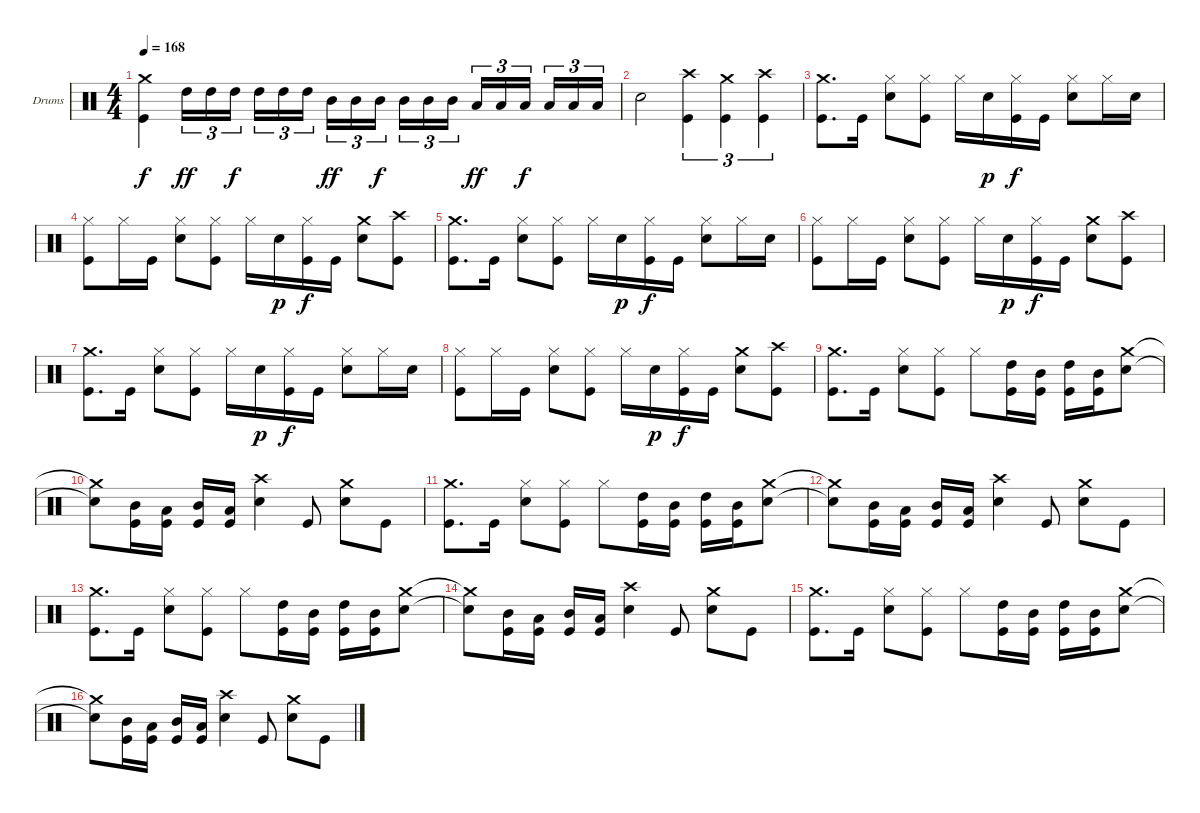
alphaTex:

\bracketExtendMode groupsimilarinstruments
\firstSystemTrackNameOrientation horizontal
\otherSystemsTrackNameOrientation horizontal
\track ("Drumkit" "Drums") {instrument percussion}
\staff {score}
\articulation defaults
\ts (4 4)
\tempo 168
\clef neutral
\ks c
("Crash medium (hit)" "Kick (hit)").4{dy f} "High Tom (hit)".16{tu (3 2) dy ff} "High Tom (hit)".16{tu (3 2)} "High Tom (hit)".16{tu (3 2) dy f} "High Tom (hit)".16{tu (3 2)} "High Tom (hit)".16{tu (3 2)} "High Tom (hit)".16{tu (3 2)} "Mid Tom (hit)".16{tu (3 2) dy ff} "Mid Tom (hit)".16{tu (3 2)} "Mid Tom (hit)".16{tu (3 2) dy f} "Mid Tom (hit)".16{tu (3 2)} "Mid Tom (hit)".16{tu (3 2)} "Mid Tom (hit)".16{tu (3 2)} "Low Tom (hit)".16{tu (3 2) dy ff} "Low Tom (hit)".16{tu (3 2)} "Low Tom (hit)".16{tu (3 2) dy f} "Low Tom (hit)".16{tu (3 2)} "Low Tom (hit)".16{tu (3 2)} "Low Tom (hit)".16{tu (3 2)} |
"Snare (hit) 2".2 ("Crash high (hit)" "Kick (hit)").4{tu (3 2)} ("Crash medium (hit)" "Kick (hit)").4{tu (3 2)} ("Crash high (hit)" "Kick (hit)").4{tu (3 2)} |
("Crash medium (hit)" "Kick (hit)").8{d} "Kick (hit)".16 ("Hi-Hat (closed)" "Snare (hit) 2").8 ("Hi-Hat (closed)" "Kick (hit)").8 "Hi-Hat (closed)".16 "Snare (hit) 2".16{dy p} ("Hi-Hat (closed)" "Kick (hit)").16{dy f} "Kick (hit)".16 ("Hi-Hat (closed)" "Snare (hit) 2").8 "Hi-Hat (closed)".16 "Snare (hit) 2".16 |
("Hi-Hat (closed)" "Kick (hit)").8 "Hi-Hat (closed)".16 "Kick (hit)".16 ("Hi-Hat (closed)" "Snare (hit) 2").8 ("Hi-Hat (closed)" "Kick (hit)").8 "Hi-Hat (closed)".16 "Snare (hit) 2".16{dy p} ("Hi-Hat (closed)" "Kick (hit)").16{dy f} "Kick (hit)".16 ("Crash medium (hit)" "Snare (hit) 2").8 ("Crash high (hit)" "Kick (hit)").8 |
("Crash medium (hit)" "Kick (hit)").8{d} "Kick (hit)".16 ("Hi-Hat (closed)" "Snare (hit) 2").8 ("Hi-Hat (closed)" "Kick (hit)").8 "Hi-Hat (closed)".16 "Snare (hit) 2".16{dy p} ("Hi-Hat (closed)" "Kick (hit)").16{dy f} "Kick (hit)".16 ("Hi-Hat (closed)" "Snare (hit) 2").8 "Hi-Hat (closed)".16 "Snare (hit) 2".16 |
("Hi-Hat (closed)" "Kick (hit)").8 "Hi-Hat (closed)".16 "Kick (hit)".16 ("Hi-Hat (closed)" "Snare (hit) 2").8 ("Hi-Hat (closed)" "Kick (hit)").8 "Hi-Hat (closed)".16 "Snare (hit) 2".16{dy p} ("Hi-Hat (closed)" "Kick (hit)").16{dy f} "Kick (hit)".16 ("Crash medium (hit)" "Snare (hit) 2").8 ("Crash high (hit)" "Kick (hit)").8 |
("Crash medium (hit)" "Kick (hit)").8{d} "Kick (hit)".16 ("Hi-Hat (closed)" "Snare (hit) 2").8 ("Hi-Hat (closed)" "Kick (hit)").8 "Hi-Hat (closed)".16 "Snare (hit) 2".16{dy p} ("Hi-Hat (closed)" "Kick (hit)").16{dy f} "Kick (hit)".16 ("Hi-Hat (closed)" "Snare (hit) 2").8 "Hi-Hat (closed)".16 "Snare (hit) 2".16 |
("Hi-Hat (closed)" "Kick (hit)").8 "Hi-Hat (closed)".16 "Kick (hit)".16 ("Hi-Hat (closed)" "Snare (hit) 2").8 ("Hi-Hat (closed)" "Kick (hit)").8 "Hi-Hat (closed)".16 "Snare (hit) 2".16{dy p} ("Hi-Hat (closed)" "Kick (hit)").16{dy f} "Kick (hit)".16 ("Crash medium (hit)" "Snare (hit) 2").8 ("Crash high (hit)" "Kick (hit)").8 |
("Crash medium (hit)" "Kick (hit)").8{d} "Kick (hit)".16 ("Hi-Hat (closed)" "Snare (hit) 2").8 ("Hi-Hat (closed)" "Kick (hit)").8 "Hi-Hat (closed)".8 ("High Tom (hit)" "Kick (hit)").16 ("Mid Tom (hit)" "Kick (hit)").16 ("High Tom (hit)" "Kick (hit)").16 ("Mid Tom (hit)" "Kick (hit)").16 ("Crash medium (hit)" "Snare (hit) 2").8 |
("Crash medium (hit)"{t} "Snare (hit) 2"{t}).8 ("Mid Tom (hit)" "Kick (hit)").16 ("Low Tom (hit)" "Kick (hit)").16 ("Mid Tom (hit)" "Kick (hit)").16 ("Low Tom (hit)" "Kick (hit)").16 ("Crash high (hit)" "Snare (hit) 2").4 "Kick (hit)".8 ("Crash medium (hit)" "Snare (hit) 2").8 "Kick (hit)".8 |
("Crash medium (hit)" "Kick (hit)").8{d} "Kick (hit)".16 ("Hi-Hat (closed)" "Snare (hit) 2").8 ("Hi-Hat (closed)" "Kick (hit)").8 "Hi-Hat (closed)".8 ("High Tom (hit)" "Kick (hit)").16 ("Mid Tom (hit)" "Kick (hit)").16 ("High Tom (hit)" "Kick (hit)").16 ("Mid Tom (hit)" "Kick (hit)").16 ("Crash medium (hit)" "Snare (hit) 2").8 |
("Crash medium (hit)"{t} "Snare (hit) 2"{t}).8 ("Mid Tom (hit)" "Kick (hit)").16 ("Low Tom (hit)" "Kick (hit)").16 ("Mid Tom (hit)" "Kick (hit)").16 ("Low Tom (hit)" "Kick (hit)").16 ("Crash high (hit)" "Snare (hit) 2").4 "Kick (hit)".8 ("Crash medium (hit)" "Snare (hit) 2").8 "Kick (hit)".8 |
("Crash medium (hit)" "Kick (hit)").8{d} "Kick (hit)".16 ("Hi-Hat (closed)" "Snare (hit) 2").8 ("Hi-Hat (closed)" "Kick (hit)").8 "Hi-Hat (closed)".8 ("High Tom (hit)" "Kick (hit)").16 ("Mid Tom (hit)" "Kick (hit)").16 ("High Tom (hit)" "Kick (hit)").16 ("Mid Tom (hit)" "Kick (hit)").16 ("Crash medium (hit)" "Snare (hit) 2").8 |
("Crash medium (hit)"{t} "Snare (hit) 2"{t}).8 ("Mid Tom (hit)" "Kick (hit)").16 ("Low Tom (hit)" "Kick (hit)").16 ("Mid Tom (hit)" "Kick (hit)").16 ("Low Tom (hit)" "Kick (hit)").16 ("Crash high (hit)" "Snare (hit) 2").4 "Kick (hit)".8 ("Crash medium (hit)" "Snare (hit) 2").8 "Kick (hit)".8 |
("Crash medium (hit)" "Kick (hit)").8{d} "Kick (hit)".16 ("Hi-Hat (closed)" "Snare (hit) 2").8 ("Hi-Hat (closed)" "Kick (hit)").8 "Hi-Hat (closed)".8 ("High Tom (hit)" "Kick (hit)").16 ("Mid Tom (hit)" "Kick (hit)").16 ("High Tom (hit)" "Kick (hit)").16 ("Mid Tom (hit)" "Kick (hit)").16 ("Crash medium (hit)" "Snare (hit) 2").8 |
("Crash medium (hit)"{t} "Snare (hit) 2"{t}).8 ("Mid Tom (hit)" "Kick (hit)").16 ("Low Tom (hit)" "Kick (hit)").16 ("Mid Tom (hit)" "Kick (hit)").16 ("Low Tom (hit)" "Kick (hit)").16 ("Crash high (hit)" "Snare (hit) 2").4 "Kick (hit)".8 ("Crash medium (hit)" "Snare (hit) 2").8 "Kick (hit)".8
